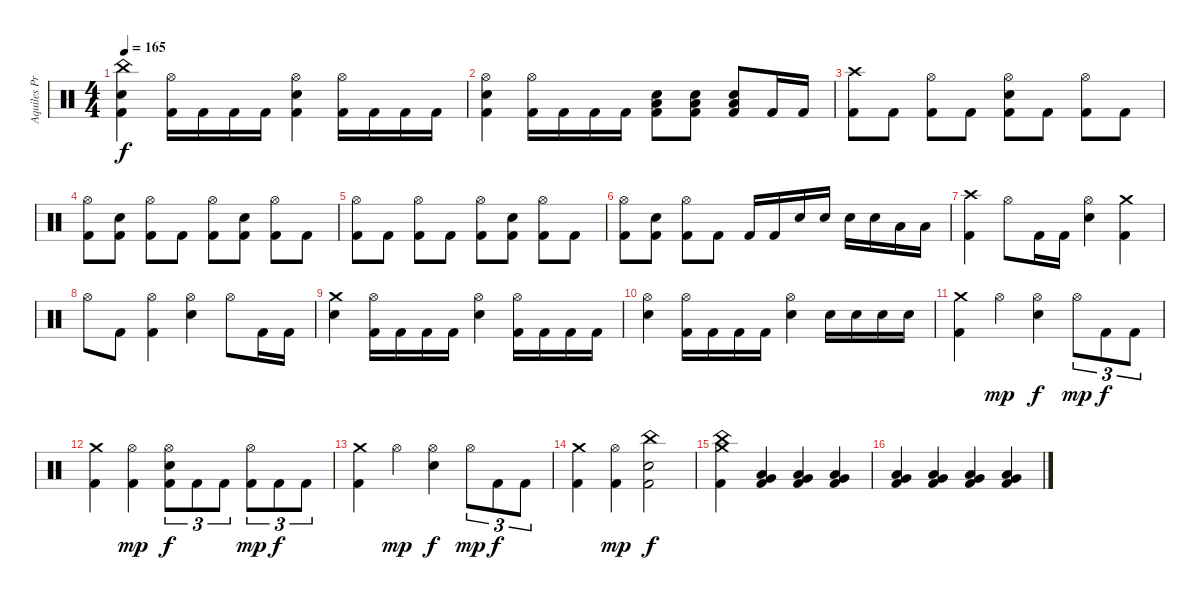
\track ("Aquiles Priester" "Aquiles Pr") {instrument percussion}
\staff {score}
\articulation defaults
\ts (4 4)
\tempo 165
\clef neutral
\ks c
("China (hit)" "Electric Snare (hit)" "Kick (hit) 2").4{dy f} ("Hi-Hat (open)" "Kick (hit) 2").16 "Kick (hit) 2".16 "Kick (hit) 2".16 "Kick (hit) 2".16 ("Hi-Hat (open)" "Electric Snare (hit)" "Kick (hit) 2").4 ("Hi-Hat (open)" "Kick (hit) 2").16 "Kick (hit) 2".16 "Kick (hit) 2".16 "Kick (hit) 2".16 |
("Hi-Hat (open)" "Electric Snare (hit)" "Kick (hit) 2").4 ("Hi-Hat (open)" "Kick (hit) 2").16 "Kick (hit) 2".16 "Kick (hit) 2".16 "Kick (hit) 2".16 ("Low Tom (hit)" "Electric Snare (hit)" "Kick (hit) 2").8 ("Low Tom (hit)" "Electric Snare (hit)" "Kick (hit) 2").8 ("Low Tom (hit)" "Electric Snare (hit)" "Kick (hit) 2").8 "Kick (hit) 2".16 "Kick (hit) 2".16 |
("Crash high (hit)" "Kick (hit) 2").8 "Kick (hit) 2".8 ("Hi-Hat (open)" "Kick (hit) 2").8 "Kick (hit) 2".8 ("Hi-Hat (open)" "Electric Snare (hit)" "Kick (hit) 2").8 "Kick (hit) 2".8 ("Hi-Hat (open)" "Kick (hit) 2").8 "Kick (hit) 2".8 |
("Hi-Hat (open)" "Kick (hit) 2").8 ("Electric Snare (hit)" "Kick (hit) 2").8 ("Hi-Hat (open)" "Kick (hit) 2").8 "Kick (hit) 2".8 ("Hi-Hat (open)" "Kick (hit) 2").8 ("Electric Snare (hit)" "Kick (hit) 2").8 ("Hi-Hat (open)" "Kick (hit) 2").8 "Kick (hit) 2".8 |
("Hi-Hat (open)" "Kick (hit) 2").8 "Kick (hit) 2".8 ("Hi-Hat (open)" "Kick (hit) 2").8 "Kick (hit) 2".8 ("Hi-Hat (open)" "Kick (hit) 2").8 ("Electric Snare (hit)" "Kick (hit) 2").8 ("Hi-Hat (open)" "Kick (hit) 2").8 "Kick (hit) 2".8 |
("Hi-Hat (open)" "Kick (hit) 2").8 ("Electric Snare (hit)" "Kick (hit) 2").8 ("Hi-Hat (open)" "Kick (hit) 2").8 "Kick (hit) 2".8 "Kick (hit) 2".16 "Kick (hit) 2".16 "Electric Snare (hit)".16 "Electric Snare (hit)".16 "Electric Snare (hit)".16 "Electric Snare (hit)".16 "Low Tom (hit)".16 "Low Tom (hit)".16 |
("Crash high (hit)" "Kick (hit) 2").4 "Hi-Hat (open)".8 "Kick (hit) 2".16 "Kick (hit) 2".16 ("Hi-Hat (open)" "Electric Snare (hit)").4 ("Crash medium (hit)" "Kick (hit) 2").4 |
"Hi-Hat (open)".8 "Kick (hit) 2".8 ("Hi-Hat (open)" "Kick (hit) 2").4 ("Hi-Hat (open)" "Electric Snare (hit)").4 "Hi-Hat (open)".8 "Kick (hit) 2".16 "Kick (hit) 2".16 |
("Crash medium (hit)" "Electric Snare (hit)").4 ("Hi-Hat (open)" "Kick (hit) 2").16 "Kick (hit) 2".16 "Kick (hit) 2".16 "Kick (hit) 2".16 ("Hi-Hat (open)" "Electric Snare (hit)").4 ("Hi-Hat (open)" "Kick (hit) 2").16 "Kick (hit) 2".16 "Kick (hit) 2".16 "Kick (hit) 2".16 |
("Hi-Hat (open)" "Electric Snare (hit)").4 ("Hi-Hat (open)" "Kick (hit) 2").16 "Kick (hit) 2".16 "Kick (hit) 2".16 "Kick (hit) 2".16 ("Hi-Hat (open)" "Electric Snare (hit)").4 "Electric Snare (hit)".16 "Electric Snare (hit)".16 "Electric Snare (hit)".16 "Electric Snare (hit)".16 |
("Crash medium (hit)" "Kick (hit) 2").4 "Hi-Hat (open)".4{dy mp} ("Hi-Hat (open)" "Electric Snare (hit)").4{dy f} "Hi-Hat (open)".8{tu (3 2) dy mp} "Kick (hit) 2".8{tu (3 2) dy f} "Kick (hit) 2".8{tu (3 2)} |
("Crash medium (hit)" "Kick (hit) 2").4 ("Hi-Hat (open)" "Kick (hit) 2").4{dy mp} ("Hi-Hat (open)" "Electric Snare (hit)" "Kick (hit) 2").8{tu (3 2) dy f} "Kick (hit) 2".8{tu (3 2)} "Kick (hit) 2".8{tu (3 2)} ("Hi-Hat (open)" "Kick (hit) 2").8{tu (3 2) dy mp} "Kick (hit) 2".8{tu (3 2) dy f} "Kick (hit) 2".8{tu (3 2)} |
("Crash medium (hit)" "Kick (hit) 2").4 "Hi-Hat (open)".4{dy mp} ("Hi-Hat (open)" "Electric Snare (hit)").4{dy f} "Hi-Hat (open)".8{tu (3 2) dy mp} "Kick (hit) 2".8{tu (3 2) dy f} "Kick (hit) 2".8{tu (3 2)} |
("Crash medium (hit)" "Kick (hit) 2").4 ("Hi-Hat (open)" "Kick (hit) 2").4{dy mp} ("China (hit)" "Electric Snare (hit)" "Kick (hit) 2").2{dy f} |
("Crash medium (hit)" "China (hit)" "Kick (hit) 2").4 ("Low Tom (hit)" "Very Low Tom (hit)" "Kick (hit) 2").4 ("Low Tom (hit)" "Very Low Tom (hit)" "Kick (hit) 2").4 ("Low Tom (hit)" "Very Low Tom (hit)" "Kick (hit) 2").4 |
("Low Tom (hit)" "Very Low Tom (hit)" "Kick (hit) 2").4 ("Low Tom (hit)" "Very Low Tom (hit)" "Kick (hit) 2").4 ("Low Tom (hit)" "Very Low Tom (hit)" "Kick (hit) 2").4 ("Low Tom (hit)" "Very Low Tom (hit)" "Kick (hit) 2").4
